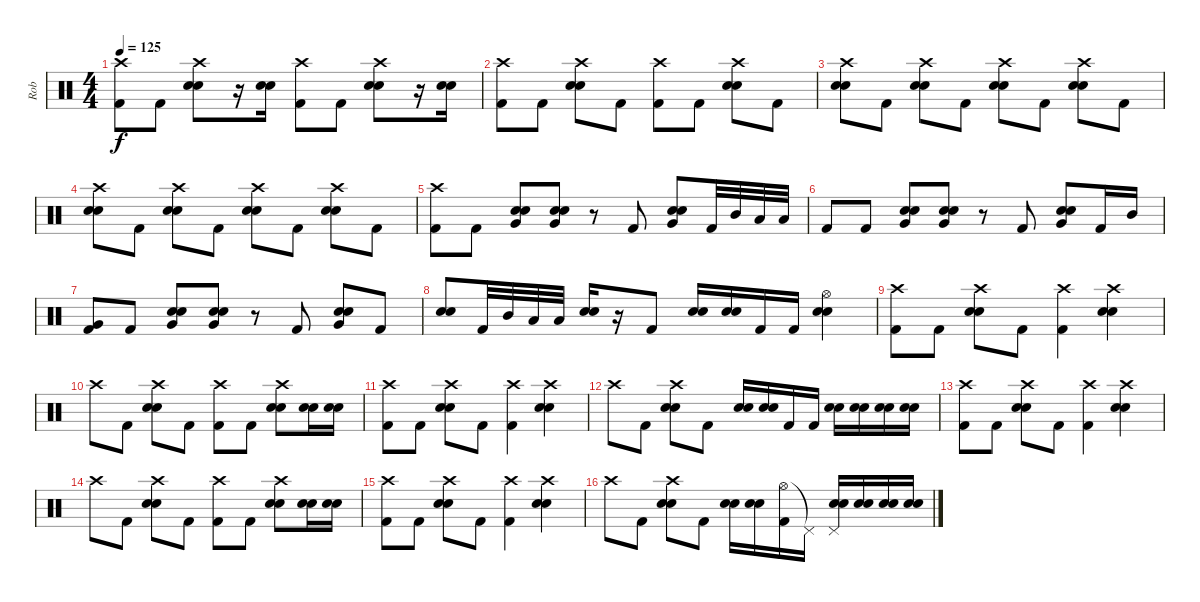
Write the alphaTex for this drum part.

\track ("Rob" "Rob") {instrument percussion}
\staff {score}
\articulation defaults
\ts (4 4)
\tempo 125
\clef neutral
\ks c
("Crash high (hit)" "Kick (hit) 2").8{dy f} "Kick (hit) 2".8 ("Crash high (hit)" "Electric Snare (hit)" "Snare (hit) 2").8 r.16 ("Electric Snare (hit)" "Snare (hit) 2").16 ("Crash high (hit)" "Kick (hit) 2").8 "Kick (hit) 2".8 ("Crash high (hit)" "Electric Snare (hit)" "Snare (hit) 2").8 r.16 ("Electric Snare (hit)" "Snare (hit) 2").16 |
("Crash high (hit)" "Kick (hit) 2").8 "Kick (hit) 2".8 ("Crash high (hit)" "Electric Snare (hit)" "Snare (hit) 2").8 "Kick (hit) 2".8 ("Crash high (hit)" "Kick (hit) 2").8 "Kick (hit) 2".8 ("Crash high (hit)" "Electric Snare (hit)" "Snare (hit) 2").8 "Kick (hit) 2".8 |
("Crash high (hit)" "Electric Snare (hit)" "Snare (hit) 2").8 "Kick (hit) 2".8 ("Crash high (hit)" "Electric Snare (hit)" "Snare (hit) 2").8 "Kick (hit) 2".8 ("Crash high (hit)" "Electric Snare (hit)" "Snare (hit) 2").8 "Kick (hit) 2".8 ("Crash high (hit)" "Electric Snare (hit)" "Snare (hit) 2").8 "Kick (hit) 2".8 |
("Crash high (hit)" "Electric Snare (hit)" "Snare (hit) 2").8 "Kick (hit) 2".8 ("Crash high (hit)" "Electric Snare (hit)" "Snare (hit) 2").8 "Kick (hit) 2".8 ("Crash high (hit)" "Electric Snare (hit)" "Snare (hit) 2").8 "Kick (hit) 2".8 ("Crash high (hit)" "Electric Snare (hit)" "Snare (hit) 2").8 "Kick (hit) 2".8 |
("Crash high (hit)" "Kick (hit) 2").8 "Kick (hit) 2".8 ("Very Low Tom (hit)" "Electric Snare (hit)" "Snare (hit) 2").8 ("Very Low Tom (hit)" "Electric Snare (hit)" "Snare (hit) 2").8 r.8 "Kick (hit) 2".8 ("Very Low Tom (hit)" "Electric Snare (hit)" "Snare (hit) 2").8 "Kick (hit) 2".32 "Mid Tom (hit)".32 "Low Floor Tom (hit)".32 "Low Floor Tom (hit)".32 |
"Kick (hit) 2".8 "Kick (hit) 2".8 ("Very Low Tom (hit)" "Electric Snare (hit)" "Snare (hit) 2").8 ("Very Low Tom (hit)" "Electric Snare (hit)" "Snare (hit) 2").8 r.8 "Kick (hit) 2".8 ("Very Low Tom (hit)" "Electric Snare (hit)" "Snare (hit) 2").8 "Kick (hit) 2".16 "Mid Tom (hit)".16 |
("Very Low Tom (hit)" "Kick (hit) 2").8 "Kick (hit) 2".8 ("Very Low Tom (hit)" "Electric Snare (hit)" "Snare (hit) 2").8 ("Very Low Tom (hit)" "Electric Snare (hit)" "Snare (hit) 2").8 r.8 "Kick (hit) 2".8 ("Very Low Tom (hit)" "Electric Snare (hit)" "Snare (hit) 2").8 "Kick (hit) 2".8 |
("Electric Snare (hit)" "Snare (hit) 2").8 "Kick (hit) 2".32 "Mid Tom (hit)".32 "Low Floor Tom (hit)".32 "Low Floor Tom (hit)".32 ("Electric Snare (hit)" "Snare (hit) 2").16 r.16 "Kick (hit) 2".8 ("Electric Snare (hit)" "Snare (hit) 2").16 ("Electric Snare (hit)" "Snare (hit) 2").16 "Kick (hit) 2".16 "Kick (hit) 2".16 ("Hi-Hat (open)" "Electric Snare (hit)" "Snare (hit) 2").4 |
("Crash high (hit)" "Kick (hit) 2").8 "Kick (hit) 2".8 ("Crash high (hit)" "Electric Snare (hit)" "Snare (hit) 2").8 "Kick (hit) 2".8 ("Crash high (hit)" "Kick (hit) 2").4 ("Crash high (hit)" "Electric Snare (hit)" "Snare (hit) 2").4 |
"Crash high (hit)".8 "Kick (hit) 2".8 ("Crash high (hit)" "Electric Snare (hit)" "Snare (hit) 2").8 "Kick (hit) 2".8 ("Crash high (hit)" "Kick (hit) 2").8 "Kick (hit) 2".8 ("Crash high (hit)" "Electric Snare (hit)" "Snare (hit) 2").8 ("Electric Snare (hit)" "Snare (hit) 2").16 ("Electric Snare (hit)" "Snare (hit) 2").16 |
("Crash high (hit)" "Kick (hit) 2").8 "Kick (hit) 2".8 ("Crash high (hit)" "Electric Snare (hit)" "Snare (hit) 2").8 "Kick (hit) 2".8 ("Crash high (hit)" "Kick (hit) 2").4 ("Crash high (hit)" "Electric Snare (hit)" "Snare (hit) 2").4 |
"Crash high (hit)".8 "Kick (hit) 2".8 ("Crash high (hit)" "Electric Snare (hit)" "Snare (hit) 2").8 "Kick (hit) 2".8 ("Electric Snare (hit)" "Snare (hit) 2").16 ("Electric Snare (hit)" "Snare (hit) 2").16 "Kick (hit) 2".16 "Kick (hit) 2".16 ("Electric Snare (hit)" "Snare (hit) 2").16 ("Electric Snare (hit)" "Snare (hit) 2").16 ("Electric Snare (hit)" "Snare (hit) 2").16 ("Electric Snare (hit)" "Snare (hit) 2").16 |
("Crash high (hit)" "Kick (hit) 2").8 "Kick (hit) 2".8 ("Crash high (hit)" "Electric Snare (hit)" "Snare (hit) 2").8 "Kick (hit) 2".8 ("Crash high (hit)" "Kick (hit) 2").4 ("Crash high (hit)" "Electric Snare (hit)" "Snare (hit) 2").4 |
"Crash high (hit)".8 "Kick (hit) 2".8 ("Crash high (hit)" "Electric Snare (hit)" "Snare (hit) 2").8 "Kick (hit) 2".8 ("Crash high (hit)" "Kick (hit) 2").8 "Kick (hit) 2".8 ("Crash high (hit)" "Electric Snare (hit)" "Snare (hit) 2").8 ("Electric Snare (hit)" "Snare (hit) 2").16 ("Electric Snare (hit)" "Snare (hit) 2").16 |
("Crash high (hit)" "Kick (hit) 2").8 "Kick (hit) 2".8 ("Crash high (hit)" "Electric Snare (hit)" "Snare (hit) 2").8 "Kick (hit) 2".8 ("Crash high (hit)" "Kick (hit) 2").4 ("Crash high (hit)" "Electric Snare (hit)" "Snare (hit) 2").4 |
"Crash high (hit)".8 "Kick (hit) 2".8 ("Crash high (hit)" "Electric Snare (hit)" "Snare (hit) 2").8 "Kick (hit) 2".8 ("Electric Snare (hit)" "Snare (hit) 2").16 ("Electric Snare (hit)" "Snare (hit) 2").16 ("Hi-Hat (open)" "Kick (hit) 2").16 "Pedal Hi-Hat (hit)"{t}.16 ("Pedal Hi-Hat (hit)" "Electric Snare (hit)" "Snare (hit) 2").16 ("Electric Snare (hit)" "Snare (hit) 2").16 ("Electric Snare (hit)" "Snare (hit) 2").16 ("Electric Snare (hit)" "Snare (hit) 2").16
